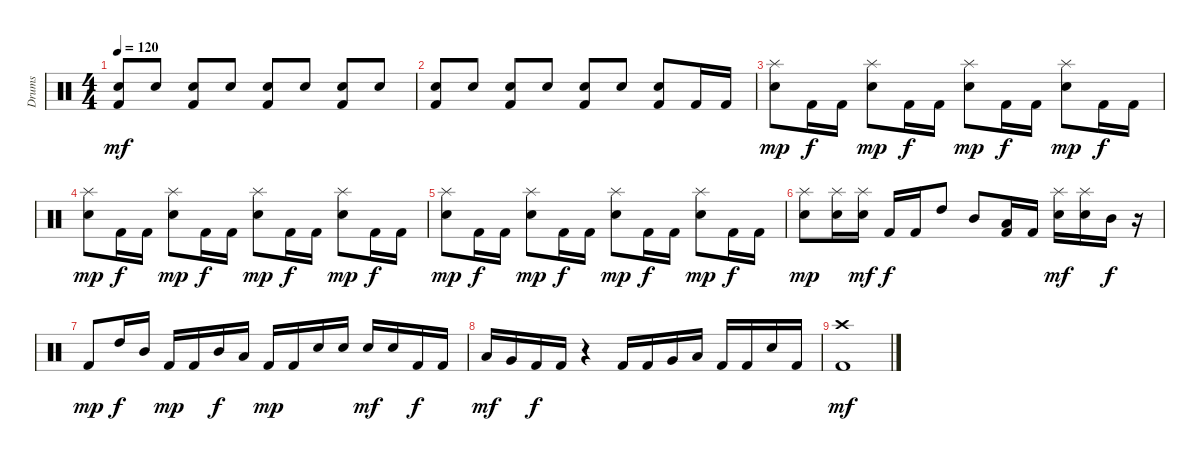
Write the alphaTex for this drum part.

\track ("Drums" "Drums") {instrument percussion}
\staff {score}
\articulation defaults
\ts (4 4)
\tempo 120
\clef neutral
\ks c
("Kick (hit) 2" "Snare (hit) 2").8{dy mf} "Snare (hit) 2".8 ("Kick (hit) 2" "Snare (hit) 2").8 "Snare (hit) 2".8 ("Kick (hit) 2" "Snare (hit) 2").8 "Snare (hit) 2".8 ("Kick (hit) 2" "Snare (hit) 2").8 "Snare (hit) 2".8 |
("Kick (hit) 2" "Snare (hit) 2").8 "Snare (hit) 2".8 ("Kick (hit) 2" "Snare (hit) 2").8 "Snare (hit) 2".8 ("Kick (hit) 2" "Snare (hit) 2").8 "Snare (hit) 2".8 ("Kick (hit) 2" "Snare (hit) 2").8 "Kick (hit) 2".16 "Kick (hit) 2".16 |
("Splash (hit)" "Snare (hit) 2").8{dy mp} "Kick (hit) 2".16{dy f} "Kick (hit) 2".16 ("Splash (hit)" "Snare (hit) 2").8{dy mp} "Kick (hit) 2".16{dy f} "Kick (hit) 2".16 ("Splash (hit)" "Snare (hit) 2").8{dy mp} "Kick (hit) 2".16{dy f} "Kick (hit) 2".16 ("Splash (hit)" "Snare (hit) 2").8{dy mp} "Kick (hit) 2".16{dy f} "Kick (hit) 2".16 |
("Splash (hit)" "Snare (hit) 2").8{dy mp} "Kick (hit) 2".16{dy f} "Kick (hit) 2".16 ("Splash (hit)" "Snare (hit) 2").8{dy mp} "Kick (hit) 2".16{dy f} "Kick (hit) 2".16 ("Splash (hit)" "Snare (hit) 2").8{dy mp} "Kick (hit) 2".16{dy f} "Kick (hit) 2".16 ("Splash (hit)" "Snare (hit) 2").8{dy mp} "Kick (hit) 2".16{dy f} "Kick (hit) 2".16 |
("Splash (hit)" "Snare (hit) 2").8{dy mp} "Kick (hit) 2".16{dy f} "Kick (hit) 2".16 ("Splash (hit)" "Snare (hit) 2").8{dy mp} "Kick (hit) 2".16{dy f} "Kick (hit) 2".16 ("Splash (hit)" "Snare (hit) 2").8{dy mp} "Kick (hit) 2".16{dy f} "Kick (hit) 2".16 ("Splash (hit)" "Snare (hit) 2").8{dy mp} "Kick (hit) 2".16{dy f} "Kick (hit) 2".16 |
("Splash (hit)" "Snare (hit) 2").8{dy mp} ("Splash (hit)" "Snare (hit) 2").16 ("Splash (hit)" "Snare (hit) 2").16{dy mf} "Kick (hit) 2".16{dy f} "Kick (hit) 2".16 "High Tom (hit)".8 "Mid Tom (hit)".8 ("Kick (hit) 2" "Low Tom (hit)").16 "Kick (hit) 2".16 ("Splash (hit)" "Snare (hit) 2").16{dy mf} ("Splash (hit)" "Snare (hit) 2").16 "Mid Tom (hit)".16{dy f} r.16 |
"Kick (hit) 2".8{dy mp} "High Tom (hit)".16{dy f} "Mid Tom (hit)".16 "Kick (hit) 2".16{dy mp} "Kick (hit) 2".16 "Mid Tom (hit)".16{dy f} "Low Tom (hit)".16 "Kick (hit) 2".16{dy mp} "Kick (hit) 2".16 "Snare (hit) 2".16 "Snare (hit) 2".16 "Snare (hit) 2".16{dy mf} "Snare (hit) 2".16 "Kick (hit) 2".16{dy f} "Kick (hit) 2".16 |
"Low Tom (hit)".16{dy mf} "Very Low Tom (hit)".16 "Kick (hit) 2".16{dy f} "Kick (hit) 2".16 r.4 "Kick (hit) 2".16 "Kick (hit) 2".16 "Very Low Tom (hit)".16 "Low Floor Tom (hit)".16 "Kick (hit) 2".16 "Kick (hit) 2".16 "Snare (hit) 2".16 "Kick (hit) 2".16 |
("Kick (hit) 2" "Crash high (hit)").1{dy mf}
